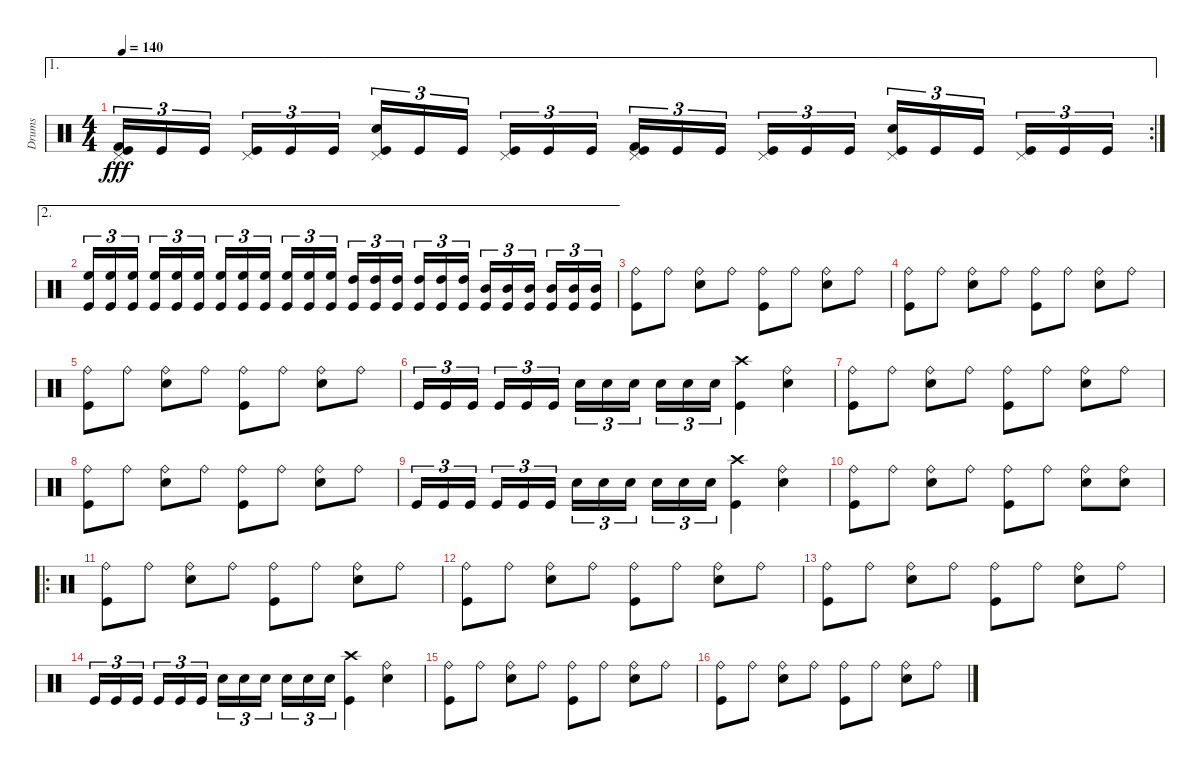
\track ("Drums" "Drums") {instrument percussion}
\staff {score}
\articulation defaults
\ae 1
\rc 2
\ts (4 4)
\tempo 140
\clef neutral
\ks c
("Kick (hit)" "Kick (hit) 2" "Pedal Hi-Hat (hit)").16{tu (3 2) dy fff} "Kick (hit)".16{tu (3 2)} "Kick (hit)".16{tu (3 2)} ("Kick (hit)" "Pedal Hi-Hat (hit)").16{tu (3 2)} "Kick (hit)".16{tu (3 2)} "Kick (hit)".16{tu (3 2)} ("Kick (hit)" "Snare (hit) 2" "Pedal Hi-Hat (hit)").16{tu (3 2)} "Kick (hit)".16{tu (3 2)} "Kick (hit)".16{tu (3 2)} ("Kick (hit)" "Pedal Hi-Hat (hit)").16{tu (3 2)} "Kick (hit)".16{tu (3 2)} "Kick (hit)".16{tu (3 2)} ("Kick (hit)" "Kick (hit) 2" "Pedal Hi-Hat (hit)").16{tu (3 2)} "Kick (hit)".16{tu (3 2)} "Kick (hit)".16{tu (3 2)} ("Kick (hit)" "Pedal Hi-Hat (hit)").16{tu (3 2)} "Kick (hit)".16{tu (3 2)} "Kick (hit)".16{tu (3 2)} ("Kick (hit)" "Snare (hit) 2" "Pedal Hi-Hat (hit)").16{tu (3 2)} "Kick (hit)".16{tu (3 2)} "Kick (hit)".16{tu (3 2)} ("Kick (hit)" "Pedal Hi-Hat (hit)").16{tu (3 2)} "Kick (hit)".16{tu (3 2)} "Kick (hit)".16{tu (3 2)} |
\ae 2
("Kick (hit)" "High Floor Tom (hit)").16{tu (3 2)} ("Kick (hit)" "High Floor Tom (hit)").16{tu (3 2)} ("Kick (hit)" "High Floor Tom (hit)").16{tu (3 2)} ("Kick (hit)" "High Floor Tom (hit)").16{tu (3 2)} ("Kick (hit)" "High Floor Tom (hit)").16{tu (3 2)} ("Kick (hit)" "High Floor Tom (hit)").16{tu (3 2)} ("Kick (hit)" "High Floor Tom (hit)").16{tu (3 2)} ("Kick (hit)" "High Floor Tom (hit)").16{tu (3 2)} ("Kick (hit)" "High Floor Tom (hit)").16{tu (3 2)} ("Kick (hit)" "High Floor Tom (hit)").16{tu (3 2)} ("Kick (hit)" "High Floor Tom (hit)").16{tu (3 2)} ("Kick (hit)" "High Floor Tom (hit)").16{tu (3 2)} ("Kick (hit)" "High Tom (hit)").16{tu (3 2)} ("Kick (hit)" "High Tom (hit)").16{tu (3 2)} ("Kick (hit)" "High Tom (hit)").16{tu (3 2)} ("Kick (hit)" "High Tom (hit)").16{tu (3 2)} ("Kick (hit)" "High Tom (hit)").16{tu (3 2)} ("Kick (hit)" "High Tom (hit)").16{tu (3 2)} ("Kick (hit)" "Mid Tom (hit)").16{tu (3 2)} ("Kick (hit)" "Mid Tom (hit)").16{tu (3 2)} ("Kick (hit)" "Mid Tom (hit)").16{tu (3 2)} ("Kick (hit)" "Mid Tom (hit)").16{tu (3 2)} ("Kick (hit)" "Mid Tom (hit)").16{tu (3 2)} ("Kick (hit)" "Mid Tom (hit)").16{tu (3 2)} |
("Ride (bell)" "Kick (hit)").8 "Ride (bell)".8 ("Ride (bell)" "Snare (hit) 2").8 "Ride (bell)".8 ("Ride (bell)" "Kick (hit)").8 "Ride (bell)".8 ("Ride (bell)" "Snare (hit) 2").8 "Ride (bell)".8 |
("Ride (bell)" "Kick (hit)").8 "Ride (bell)".8 ("Ride (bell)" "Snare (hit) 2").8 "Ride (bell)".8 ("Ride (bell)" "Kick (hit)").8 "Ride (bell)".8 ("Ride (bell)" "Snare (hit) 2").8 "Ride (bell)".8 |
("Ride (bell)" "Kick (hit)").8 "Ride (bell)".8 ("Ride (bell)" "Snare (hit) 2").8 "Ride (bell)".8 ("Ride (bell)" "Kick (hit)").8 "Ride (bell)".8 ("Ride (bell)" "Snare (hit) 2").8 "Ride (bell)".8 |
"Kick (hit)".16{tu (3 2)} "Kick (hit)".16{tu (3 2)} "Kick (hit)".16{tu (3 2)} "Kick (hit)".16{tu (3 2)} "Kick (hit)".16{tu (3 2)} "Kick (hit)".16{tu (3 2)} "Snare (hit) 2".16{tu (3 2)} "Snare (hit) 2".16{tu (3 2)} "Snare (hit) 2".16{tu (3 2)} "Snare (hit) 2".16{tu (3 2)} "Snare (hit) 2".16{tu (3 2)} "Snare (hit) 2".16{tu (3 2)} ("Crash high (hit)" "Kick (hit)").4 ("Ride (bell)" "Snare (hit) 2").4 |
("Ride (bell)" "Kick (hit)").8 "Ride (bell)".8 ("Ride (bell)" "Snare (hit) 2").8 "Ride (bell)".8 ("Ride (bell)" "Kick (hit)").8 "Ride (bell)".8 ("Ride (bell)" "Snare (hit) 2").8 "Ride (bell)".8 |
("Ride (bell)" "Kick (hit)").8 "Ride (bell)".8 ("Ride (bell)" "Snare (hit) 2").8 "Ride (bell)".8 ("Ride (bell)" "Kick (hit)").8 "Ride (bell)".8 ("Ride (bell)" "Snare (hit) 2").8 "Ride (bell)".8 |
"Kick (hit)".16{tu (3 2)} "Kick (hit)".16{tu (3 2)} "Kick (hit)".16{tu (3 2)} "Kick (hit)".16{tu (3 2)} "Kick (hit)".16{tu (3 2)} "Kick (hit)".16{tu (3 2)} "Snare (hit) 2".16{tu (3 2)} "Snare (hit) 2".16{tu (3 2)} "Snare (hit) 2".16{tu (3 2)} "Snare (hit) 2".16{tu (3 2)} "Snare (hit) 2".16{tu (3 2)} "Snare (hit) 2".16{tu (3 2)} ("Crash high (hit)" "Kick (hit)").4 ("Ride (bell)" "Snare (hit) 2").4 |
("Ride (bell)" "Kick (hit)").8 "Ride (bell)".8 ("Ride (bell)" "Snare (hit) 2").8 "Ride (bell)".8 ("Ride (bell)" "Kick (hit)").8 "Ride (bell)".8 ("Ride (bell)" "Snare (hit) 2").8 ("Ride (bell)" "Snare (hit) 2").8 |
\ro
("Ride (bell)" "Kick (hit)").8 "Ride (bell)".8 ("Ride (bell)" "Snare (hit) 2").8 "Ride (bell)".8 ("Ride (bell)" "Kick (hit)").8 "Ride (bell)".8 ("Ride (bell)" "Snare (hit) 2").8 "Ride (bell)".8 |
("Ride (bell)" "Kick (hit)").8 "Ride (bell)".8 ("Ride (bell)" "Snare (hit) 2").8 "Ride (bell)".8 ("Ride (bell)" "Kick (hit)").8 "Ride (bell)".8 ("Ride (bell)" "Snare (hit) 2").8 "Ride (bell)".8 |
("Ride (bell)" "Kick (hit)").8 "Ride (bell)".8 ("Ride (bell)" "Snare (hit) 2").8 "Ride (bell)".8 ("Ride (bell)" "Kick (hit)").8 "Ride (bell)".8 ("Ride (bell)" "Snare (hit) 2").8 "Ride (bell)".8 |
"Kick (hit)".16{tu (3 2)} "Kick (hit)".16{tu (3 2)} "Kick (hit)".16{tu (3 2)} "Kick (hit)".16{tu (3 2)} "Kick (hit)".16{tu (3 2)} "Kick (hit)".16{tu (3 2)} "Snare (hit) 2".16{tu (3 2)} "Snare (hit) 2".16{tu (3 2)} "Snare (hit) 2".16{tu (3 2)} "Snare (hit) 2".16{tu (3 2)} "Snare (hit) 2".16{tu (3 2)} "Snare (hit) 2".16{tu (3 2)} ("Crash high (hit)" "Kick (hit)").4 ("Ride (bell)" "Snare (hit) 2").4 |
("Ride (bell)" "Kick (hit)").8 "Ride (bell)".8 ("Ride (bell)" "Snare (hit) 2").8 "Ride (bell)".8 ("Ride (bell)" "Kick (hit)").8 "Ride (bell)".8 ("Ride (bell)" "Snare (hit) 2").8 "Ride (bell)".8 |
("Ride (bell)" "Kick (hit)").8 "Ride (bell)".8 ("Ride (bell)" "Snare (hit) 2").8 "Ride (bell)".8 ("Ride (bell)" "Kick (hit)").8 "Ride (bell)".8 ("Ride (bell)" "Snare (hit) 2").8 "Ride (bell)".8
